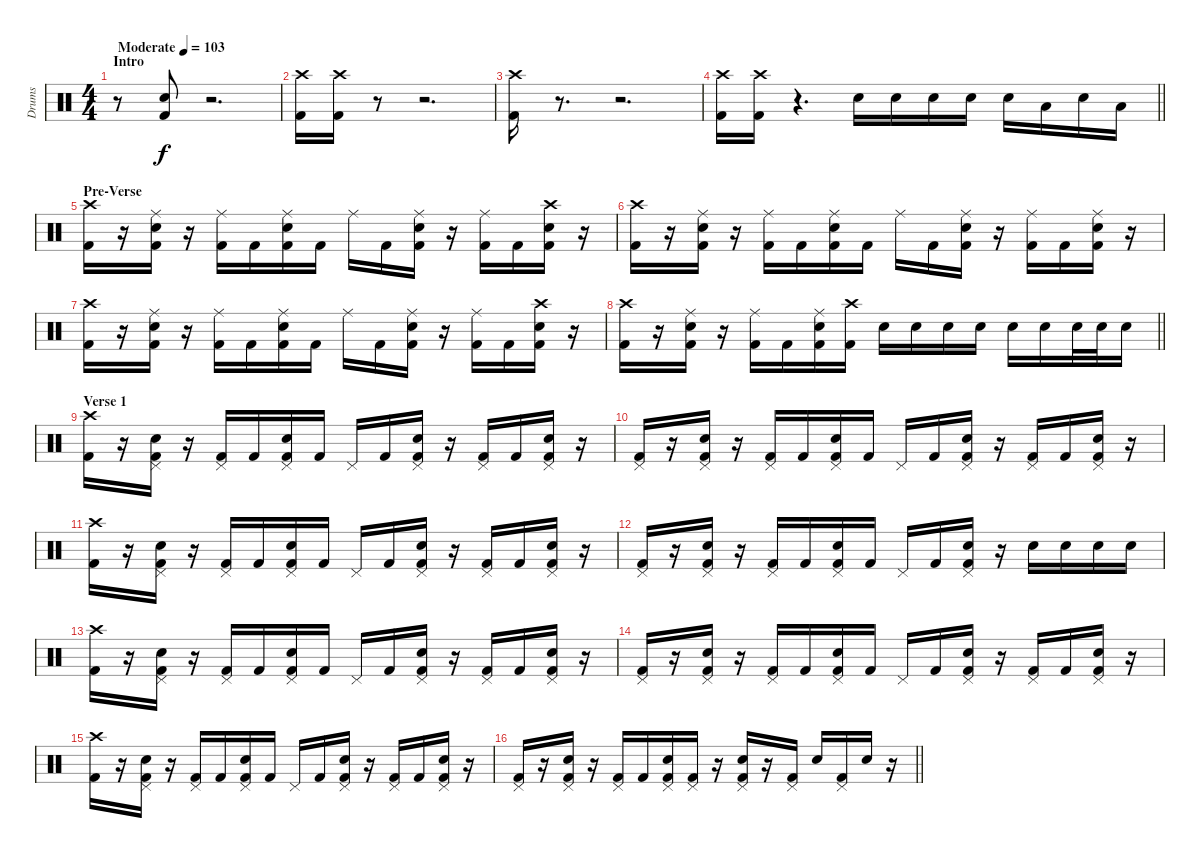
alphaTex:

\track ("Drums" "Drums") {instrument percussion}
\staff {score}
\articulation defaults
\ts (4 4)
\section ("" "Intro")
\tempo (103 "Moderate")
\clef neutral
\ks c
r.8{dy f} ("Snare (hit) 2" "Kick (hit) 2").8 r.2{d} |
("Crash high (hit)" "Kick (hit) 2").16 ("Crash high (hit)" "Kick (hit) 2").16 r.8 r.2{d} |
("Crash high (hit)" "Kick (hit) 2").16 r.8{d} r.2{d} |
\barLineRight lightlight
("Crash high (hit)" "Kick (hit) 2").16 ("Crash high (hit)" "Kick (hit) 2").16 r.4{d} "Snare (hit) 2".16 "Snare (hit) 2".16 "Snare (hit) 2".16 "Snare (hit) 2".16 "Snare (hit) 2".16 "Low Tom (hit)".16 "Snare (hit) 2".16 "Low Tom (hit)".16 |
\section ("" "Pre-Verse")
("Crash high (hit)" "Kick (hit) 2").16 r.16 ("Ride (middle)" "Snare (hit) 2" "Kick (hit) 2").16 r.16 ("Ride (middle)" "Kick (hit) 2").16 "Kick (hit) 2".16 ("Ride (middle)" "Snare (hit) 2" "Kick (hit) 2").16 "Kick (hit) 2".16 "Ride (middle)".16 "Kick (hit) 2".16 ("Ride (middle)" "Snare (hit) 2" "Kick (hit) 2").16 r.16 ("Ride (middle)" "Kick (hit) 2").16 "Kick (hit) 2".16 ("Crash high (hit)" "Snare (hit) 2" "Kick (hit) 2").16 r.16 |
("Crash high (hit)" "Kick (hit) 2").16 r.16 ("Ride (middle)" "Snare (hit) 2" "Kick (hit) 2").16 r.16 ("Ride (middle)" "Kick (hit) 2").16 "Kick (hit) 2".16 ("Ride (middle)" "Snare (hit) 2" "Kick (hit) 2").16 "Kick (hit) 2".16 "Ride (middle)".16 "Kick (hit) 2".16 ("Ride (middle)" "Snare (hit) 2" "Kick (hit) 2").16 r.16 ("Ride (middle)" "Kick (hit) 2").16 "Kick (hit) 2".16 ("Ride (middle)" "Snare (hit) 2" "Kick (hit) 2").16 r.16 |
("Crash high (hit)" "Kick (hit) 2").16 r.16 ("Ride (middle)" "Snare (hit) 2" "Kick (hit) 2").16 r.16 ("Ride (middle)" "Kick (hit) 2").16 "Kick (hit) 2".16 ("Ride (middle)" "Snare (hit) 2" "Kick (hit) 2").16 "Kick (hit) 2".16 "Ride (middle)".16 "Kick (hit) 2".16 ("Ride (middle)" "Snare (hit) 2" "Kick (hit) 2").16 r.16 ("Ride (middle)" "Kick (hit) 2").16 "Kick (hit) 2".16 ("Crash high (hit)" "Snare (hit) 2" "Kick (hit) 2").16 r.16 |
\barLineRight lightlight
("Crash high (hit)" "Kick (hit) 2").16 r.16 ("Ride (middle)" "Snare (hit) 2" "Kick (hit) 2").16 r.16 ("Ride (middle)" "Kick (hit) 2").16 "Kick (hit) 2".16 ("Ride (middle)" "Snare (hit) 2" "Kick (hit) 2").16 ("Crash high (hit)" "Kick (hit) 2").16 "Snare (hit) 2".16 "Snare (hit) 2".16 "Snare (hit) 2".16 "Snare (hit) 2".16 "Snare (hit) 2".16 "Snare (hit) 2".16 "Snare (hit) 2".32 "Snare (hit) 2".32 "Snare (hit) 2".16 |
\section ("" "Verse 1")
("Crash high (hit)" "Kick (hit) 2").16 r.16 ("Pedal Hi-Hat (hit)" "Snare (hit) 2" "Kick (hit) 2").16 r.16 ("Pedal Hi-Hat (hit)" "Kick (hit) 2").16 "Kick (hit) 2".16 ("Pedal Hi-Hat (hit)" "Snare (hit) 2" "Kick (hit) 2").16 "Kick (hit) 2".16 "Pedal Hi-Hat (hit)".16 "Kick (hit) 2".16 ("Pedal Hi-Hat (hit)" "Snare (hit) 2" "Kick (hit) 2").16 r.16 ("Pedal Hi-Hat (hit)" "Kick (hit) 2").16 "Kick (hit) 2".16 ("Pedal Hi-Hat (hit)" "Snare (hit) 2" "Kick (hit) 2").16 r.16 |
("Pedal Hi-Hat (hit)" "Kick (hit) 2").16 r.16 ("Pedal Hi-Hat (hit)" "Snare (hit) 2" "Kick (hit) 2").16 r.16 ("Pedal Hi-Hat (hit)" "Kick (hit) 2").16 "Kick (hit) 2".16 ("Pedal Hi-Hat (hit)" "Snare (hit) 2" "Kick (hit) 2").16 "Kick (hit) 2".16 "Pedal Hi-Hat (hit)".16 "Kick (hit) 2".16 ("Pedal Hi-Hat (hit)" "Snare (hit) 2" "Kick (hit) 2").16 r.16 ("Pedal Hi-Hat (hit)" "Kick (hit) 2").16 "Kick (hit) 2".16 ("Pedal Hi-Hat (hit)" "Snare (hit) 2" "Kick (hit) 2").16 r.16 |
("Crash high (hit)" "Kick (hit) 2").16 r.16 ("Pedal Hi-Hat (hit)" "Snare (hit) 2" "Kick (hit) 2").16 r.16 ("Pedal Hi-Hat (hit)" "Kick (hit) 2").16 "Kick (hit) 2".16 ("Pedal Hi-Hat (hit)" "Snare (hit) 2" "Kick (hit) 2").16 "Kick (hit) 2".16 "Pedal Hi-Hat (hit)".16 "Kick (hit) 2".16 ("Pedal Hi-Hat (hit)" "Snare (hit) 2" "Kick (hit) 2").16 r.16 ("Pedal Hi-Hat (hit)" "Kick (hit) 2").16 "Kick (hit) 2".16 ("Pedal Hi-Hat (hit)" "Snare (hit) 2" "Kick (hit) 2").16 r.16 |
("Pedal Hi-Hat (hit)" "Kick (hit) 2").16 r.16 ("Pedal Hi-Hat (hit)" "Snare (hit) 2" "Kick (hit) 2").16 r.16 ("Pedal Hi-Hat (hit)" "Kick (hit) 2").16 "Kick (hit) 2".16 ("Pedal Hi-Hat (hit)" "Snare (hit) 2" "Kick (hit) 2").16 "Kick (hit) 2".16 "Pedal Hi-Hat (hit)".16 "Kick (hit) 2".16 ("Pedal Hi-Hat (hit)" "Snare (hit) 2" "Kick (hit) 2").16 r.16 "Snare (hit) 2".16 "Snare (hit) 2".16 "Snare (hit) 2".16 "Snare (hit) 2".16 |
("Crash high (hit)" "Kick (hit) 2").16 r.16 ("Pedal Hi-Hat (hit)" "Snare (hit) 2" "Kick (hit) 2").16 r.16 ("Pedal Hi-Hat (hit)" "Kick (hit) 2").16 "Kick (hit) 2".16 ("Pedal Hi-Hat (hit)" "Snare (hit) 2" "Kick (hit) 2").16 "Kick (hit) 2".16 "Pedal Hi-Hat (hit)".16 "Kick (hit) 2".16 ("Pedal Hi-Hat (hit)" "Snare (hit) 2" "Kick (hit) 2").16 r.16 ("Pedal Hi-Hat (hit)" "Kick (hit) 2").16 "Kick (hit) 2".16 ("Pedal Hi-Hat (hit)" "Snare (hit) 2" "Kick (hit) 2").16 r.16 |
("Pedal Hi-Hat (hit)" "Kick (hit) 2").16 r.16 ("Pedal Hi-Hat (hit)" "Snare (hit) 2" "Kick (hit) 2").16 r.16 ("Pedal Hi-Hat (hit)" "Kick (hit) 2").16 "Kick (hit) 2".16 ("Pedal Hi-Hat (hit)" "Snare (hit) 2" "Kick (hit) 2").16 "Kick (hit) 2".16 "Pedal Hi-Hat (hit)".16 "Kick (hit) 2".16 ("Pedal Hi-Hat (hit)" "Snare (hit) 2" "Kick (hit) 2").16 r.16 ("Pedal Hi-Hat (hit)" "Kick (hit) 2").16 "Kick (hit) 2".16 ("Pedal Hi-Hat (hit)" "Snare (hit) 2" "Kick (hit) 2").16 r.16 |
("Crash high (hit)" "Kick (hit) 2").16 r.16 ("Pedal Hi-Hat (hit)" "Snare (hit) 2" "Kick (hit) 2").16 r.16 ("Pedal Hi-Hat (hit)" "Kick (hit) 2").16 "Kick (hit) 2".16 ("Pedal Hi-Hat (hit)" "Snare (hit) 2" "Kick (hit) 2").16 "Kick (hit) 2".16 "Pedal Hi-Hat (hit)".16 "Kick (hit) 2".16 ("Pedal Hi-Hat (hit)" "Snare (hit) 2" "Kick (hit) 2").16 r.16 ("Pedal Hi-Hat (hit)" "Kick (hit) 2").16 "Kick (hit) 2".16 ("Pedal Hi-Hat (hit)" "Snare (hit) 2" "Kick (hit) 2").16 r.16 |
\barLineRight lightlight
("Pedal Hi-Hat (hit)" "Kick (hit) 2").16 r.16 ("Pedal Hi-Hat (hit)" "Snare (hit) 2" "Kick (hit) 2").16 r.16 ("Pedal Hi-Hat (hit)" "Kick (hit) 2").16 "Kick (hit) 2".16 ("Pedal Hi-Hat (hit)" "Snare (hit) 2" "Kick (hit) 2").16 ("Pedal Hi-Hat (hit)" "Kick (hit) 2").16 r.16 ("Pedal Hi-Hat (hit)" "Snare (hit) 2" "Kick (hit) 2").16 r.16 ("Pedal Hi-Hat (hit)" "Kick (hit) 2").16 "Snare (hit) 2".16 ("Pedal Hi-Hat (hit)" "Kick (hit) 2").16 "Snare (hit) 2".16 r.16
